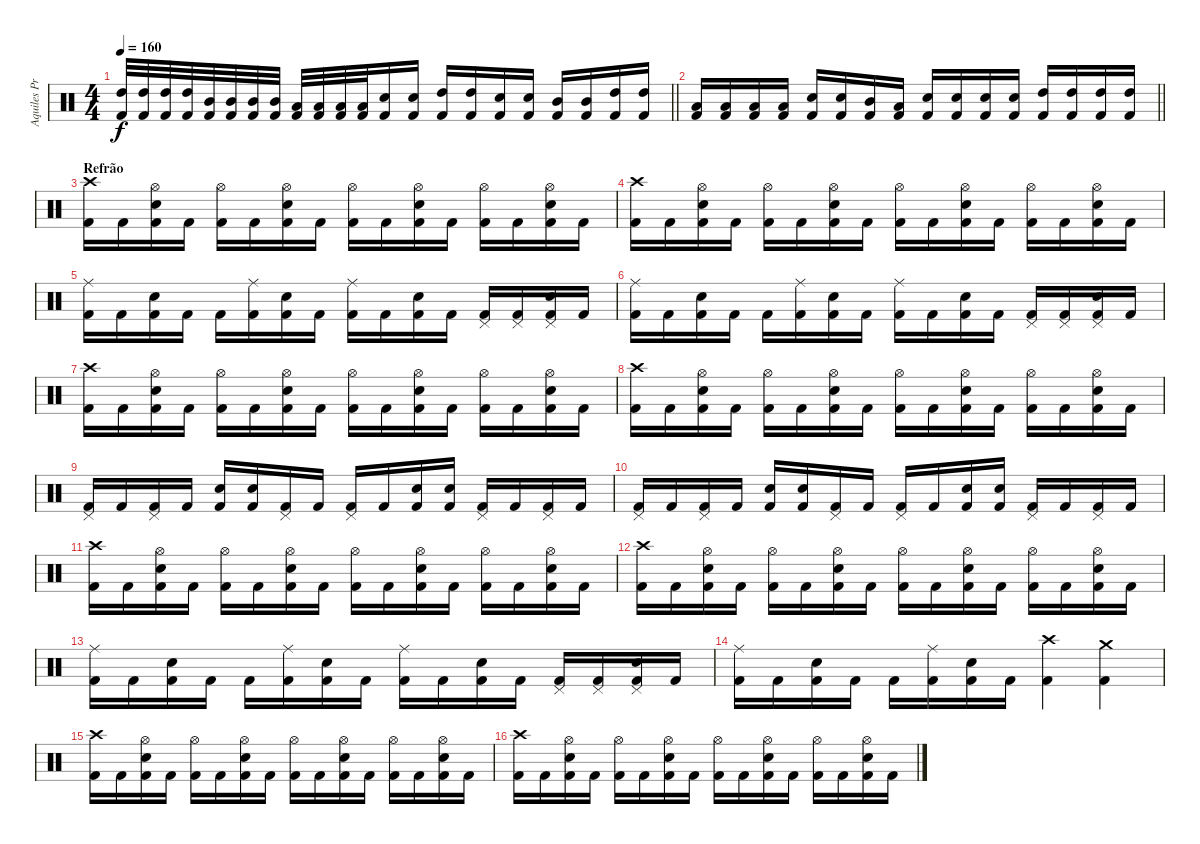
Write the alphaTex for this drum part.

\track ("Aquiles Priester" "Aquiles Pr") {instrument percussion}
\staff {score}
\articulation defaults
\ts (4 4)
\tempo 160
\clef neutral
\barLineRight lightlight
\ks c
("High Tom (hit)" "Kick (hit) 2").32{dy f} ("High Tom (hit)" "Kick (hit) 2").32 ("High Tom (hit)" "Kick (hit) 2").32 ("High Tom (hit)" "Kick (hit) 2").32 ("Mid Tom (hit)" "Kick (hit) 2").32 ("Mid Tom (hit)" "Kick (hit) 2").32 ("Mid Tom (hit)" "Kick (hit) 2").32 ("Mid Tom (hit)" "Kick (hit) 2").32 ("Low Tom (hit)" "Kick (hit) 2").32 ("Low Tom (hit)" "Kick (hit) 2").32 ("Low Tom (hit)" "Kick (hit) 2").32 ("Low Tom (hit)" "Kick (hit) 2").32 ("Electric Snare (hit)" "Kick (hit) 2").16 ("Electric Snare (hit)" "Kick (hit) 2").16 ("High Tom (hit)" "Kick (hit) 2").16 ("High Tom (hit)" "Kick (hit) 2").16 ("Electric Snare (hit)" "Kick (hit) 2").16 ("Electric Snare (hit)" "Kick (hit) 2").16 ("Mid Tom (hit)" "Kick (hit) 2").16 ("Mid Tom (hit)" "Kick (hit) 2").16 ("High Tom (hit)" "Kick (hit) 2").16 ("High Tom (hit)" "Kick (hit) 2").16 |
\barLineRight lightlight
("Low Tom (hit)" "Kick (hit) 2").16 ("Low Tom (hit)" "Kick (hit) 2").16 ("Low Tom (hit)" "Kick (hit) 2").16 ("Low Tom (hit)" "Kick (hit) 2").16 ("Electric Snare (hit)" "Kick (hit) 2").16 ("Electric Snare (hit)" "Kick (hit) 2").16 ("Mid Tom (hit)" "Kick (hit) 2").16 ("Low Tom (hit)" "Kick (hit) 2").16 ("Electric Snare (hit)" "Kick (hit) 2").16 ("Electric Snare (hit)" "Kick (hit) 2").16 ("Electric Snare (hit)" "Kick (hit) 2").16 ("Electric Snare (hit)" "Kick (hit) 2").16 ("High Tom (hit)" "Kick (hit) 2").16 ("High Tom (hit)" "Kick (hit) 2").16 ("High Tom (hit)" "Kick (hit) 2").16 ("High Tom (hit)" "Kick (hit) 2").16 |
\section ("" "Refrão")
("Crash high (hit)" "Kick (hit) 2").16 "Kick (hit) 2".16 ("Hi-Hat (open)" "Electric Snare (hit)" "Kick (hit) 2").16 "Kick (hit) 2".16 ("Hi-Hat (open)" "Kick (hit) 2").16 "Kick (hit) 2".16 ("Hi-Hat (open)" "Electric Snare (hit)" "Kick (hit) 2").16 "Kick (hit) 2".16 ("Hi-Hat (open)" "Kick (hit) 2").16 "Kick (hit) 2".16 ("Hi-Hat (open)" "Electric Snare (hit)" "Kick (hit) 2").16 "Kick (hit) 2".16 ("Hi-Hat (open)" "Kick (hit) 2").16 "Kick (hit) 2".16 ("Hi-Hat (open)" "Electric Snare (hit)" "Kick (hit) 2").16 "Kick (hit) 2".16 |
("Crash high (hit)" "Kick (hit) 2").16 "Kick (hit) 2".16 ("Hi-Hat (open)" "Electric Snare (hit)" "Kick (hit) 2").16 "Kick (hit) 2".16 ("Hi-Hat (open)" "Kick (hit) 2").16 "Kick (hit) 2".16 ("Hi-Hat (open)" "Electric Snare (hit)" "Kick (hit) 2").16 "Kick (hit) 2".16 ("Hi-Hat (open)" "Kick (hit) 2").16 "Kick (hit) 2".16 ("Hi-Hat (open)" "Electric Snare (hit)" "Kick (hit) 2").16 "Kick (hit) 2".16 ("Hi-Hat (open)" "Kick (hit) 2").16 "Kick (hit) 2".16 ("Hi-Hat (open)" "Electric Snare (hit)" "Kick (hit) 2").16 "Kick (hit) 2".16 |
("Ride (middle)" "Kick (hit) 2").16 "Kick (hit) 2".16 ("Electric Snare (hit)" "Kick (hit) 2").16 "Kick (hit) 2".16 "Kick (hit) 2".16 ("Ride (middle)" "Kick (hit) 2").16 ("Electric Snare (hit)" "Kick (hit) 2").16 "Kick (hit) 2".16 ("Ride (middle)" "Kick (hit) 2").16 "Kick (hit) 2".16 ("Electric Snare (hit)" "Kick (hit) 2").16 "Kick (hit) 2".16 ("Pedal Hi-Hat (hit)" "Kick (hit) 2").16 ("Pedal Hi-Hat (hit)" "Kick (hit) 2").16 ("Pedal Hi-Hat (hit)" "Electric Snare (hit)" "Kick (hit) 2").16 "Kick (hit) 2".16 |
("Ride (middle)" "Kick (hit) 2").16 "Kick (hit) 2".16 ("Electric Snare (hit)" "Kick (hit) 2").16 "Kick (hit) 2".16 "Kick (hit) 2".16 ("Ride (middle)" "Kick (hit) 2").16 ("Electric Snare (hit)" "Kick (hit) 2").16 "Kick (hit) 2".16 ("Ride (middle)" "Kick (hit) 2").16 "Kick (hit) 2".16 ("Electric Snare (hit)" "Kick (hit) 2").16 "Kick (hit) 2".16 ("Pedal Hi-Hat (hit)" "Kick (hit) 2").16 ("Pedal Hi-Hat (hit)" "Kick (hit) 2").16 ("Pedal Hi-Hat (hit)" "Electric Snare (hit)" "Kick (hit) 2").16 "Kick (hit) 2".16 |
("Crash high (hit)" "Kick (hit) 2").16 "Kick (hit) 2".16 ("Hi-Hat (open)" "Electric Snare (hit)" "Kick (hit) 2").16 "Kick (hit) 2".16 ("Hi-Hat (open)" "Kick (hit) 2").16 "Kick (hit) 2".16 ("Hi-Hat (open)" "Electric Snare (hit)" "Kick (hit) 2").16 "Kick (hit) 2".16 ("Hi-Hat (open)" "Kick (hit) 2").16 "Kick (hit) 2".16 ("Hi-Hat (open)" "Electric Snare (hit)" "Kick (hit) 2").16 "Kick (hit) 2".16 ("Hi-Hat (open)" "Kick (hit) 2").16 "Kick (hit) 2".16 ("Hi-Hat (open)" "Electric Snare (hit)" "Kick (hit) 2").16 "Kick (hit) 2".16 |
("Crash high (hit)" "Kick (hit) 2").16 "Kick (hit) 2".16 ("Hi-Hat (open)" "Electric Snare (hit)" "Kick (hit) 2").16 "Kick (hit) 2".16 ("Hi-Hat (open)" "Kick (hit) 2").16 "Kick (hit) 2".16 ("Hi-Hat (open)" "Electric Snare (hit)" "Kick (hit) 2").16 "Kick (hit) 2".16 ("Hi-Hat (open)" "Kick (hit) 2").16 "Kick (hit) 2".16 ("Hi-Hat (open)" "Electric Snare (hit)" "Kick (hit) 2").16 "Kick (hit) 2".16 ("Hi-Hat (open)" "Kick (hit) 2").16 "Kick (hit) 2".16 ("Hi-Hat (open)" "Electric Snare (hit)" "Kick (hit) 2").16 "Kick (hit) 2".16 |
("Pedal Hi-Hat (hit)" "Kick (hit) 2").16 "Kick (hit) 2".16 ("Pedal Hi-Hat (hit)" "Kick (hit) 2").16 "Kick (hit) 2".16 ("Electric Snare (hit)" "Kick (hit) 2").16 ("Electric Snare (hit)" "Kick (hit) 2").16 ("Pedal Hi-Hat (hit)" "Kick (hit) 2").16 "Kick (hit) 2".16 ("Pedal Hi-Hat (hit)" "Kick (hit) 2").16 "Kick (hit) 2".16 ("Electric Snare (hit)" "Kick (hit) 2").16 ("Electric Snare (hit)" "Kick (hit) 2").16 ("Pedal Hi-Hat (hit)" "Kick (hit) 2").16 "Kick (hit) 2".16 ("Pedal Hi-Hat (hit)" "Kick (hit) 2").16 "Kick (hit) 2".16 |
("Pedal Hi-Hat (hit)" "Kick (hit) 2").16 "Kick (hit) 2".16 ("Pedal Hi-Hat (hit)" "Kick (hit) 2").16 "Kick (hit) 2".16 ("Electric Snare (hit)" "Kick (hit) 2").16 ("Electric Snare (hit)" "Kick (hit) 2").16 ("Pedal Hi-Hat (hit)" "Kick (hit) 2").16 "Kick (hit) 2".16 ("Pedal Hi-Hat (hit)" "Kick (hit) 2").16 "Kick (hit) 2".16 ("Electric Snare (hit)" "Kick (hit) 2").16 ("Electric Snare (hit)" "Kick (hit) 2").16 ("Pedal Hi-Hat (hit)" "Kick (hit) 2").16 "Kick (hit) 2".16 ("Pedal Hi-Hat (hit)" "Kick (hit) 2").16 "Kick (hit) 2".16 |
("Crash high (hit)" "Kick (hit) 2").16 "Kick (hit) 2".16 ("Hi-Hat (open)" "Electric Snare (hit)" "Kick (hit) 2").16 "Kick (hit) 2".16 ("Hi-Hat (open)" "Kick (hit) 2").16 "Kick (hit) 2".16 ("Hi-Hat (open)" "Electric Snare (hit)" "Kick (hit) 2").16 "Kick (hit) 2".16 ("Hi-Hat (open)" "Kick (hit) 2").16 "Kick (hit) 2".16 ("Hi-Hat (open)" "Electric Snare (hit)" "Kick (hit) 2").16 "Kick (hit) 2".16 ("Hi-Hat (open)" "Kick (hit) 2").16 "Kick (hit) 2".16 ("Hi-Hat (open)" "Electric Snare (hit)" "Kick (hit) 2").16 "Kick (hit) 2".16 |
("Crash high (hit)" "Kick (hit) 2").16 "Kick (hit) 2".16 ("Hi-Hat (open)" "Electric Snare (hit)" "Kick (hit) 2").16 "Kick (hit) 2".16 ("Hi-Hat (open)" "Kick (hit) 2").16 "Kick (hit) 2".16 ("Hi-Hat (open)" "Electric Snare (hit)" "Kick (hit) 2").16 "Kick (hit) 2".16 ("Hi-Hat (open)" "Kick (hit) 2").16 "Kick (hit) 2".16 ("Hi-Hat (open)" "Electric Snare (hit)" "Kick (hit) 2").16 "Kick (hit) 2".16 ("Hi-Hat (open)" "Kick (hit) 2").16 "Kick (hit) 2".16 ("Hi-Hat (open)" "Electric Snare (hit)" "Kick (hit) 2").16 "Kick (hit) 2".16 |
("Ride (middle)" "Kick (hit) 2").16 "Kick (hit) 2".16 ("Electric Snare (hit)" "Kick (hit) 2").16 "Kick (hit) 2".16 "Kick (hit) 2".16 ("Ride (middle)" "Kick (hit) 2").16 ("Electric Snare (hit)" "Kick (hit) 2").16 "Kick (hit) 2".16 ("Ride (middle)" "Kick (hit) 2").16 "Kick (hit) 2".16 ("Electric Snare (hit)" "Kick (hit) 2").16 "Kick (hit) 2".16 ("Pedal Hi-Hat (hit)" "Kick (hit) 2").16 ("Pedal Hi-Hat (hit)" "Kick (hit) 2").16 ("Pedal Hi-Hat (hit)" "Electric Snare (hit)" "Kick (hit) 2").16 "Kick (hit) 2".16 |
("Ride (middle)" "Kick (hit) 2").16 "Kick (hit) 2".16 ("Electric Snare (hit)" "Kick (hit) 2").16 "Kick (hit) 2".16 "Kick (hit) 2".16 ("Ride (middle)" "Kick (hit) 2").16 ("Electric Snare (hit)" "Kick (hit) 2").16 "Kick (hit) 2".16 ("Crash high (hit)" "Kick (hit) 2").4 ("Crash medium (hit)" "Kick (hit) 2").4 |
("Crash high (hit)" "Kick (hit) 2").16 "Kick (hit) 2".16 ("Hi-Hat (open)" "Electric Snare (hit)" "Kick (hit) 2").16 "Kick (hit) 2".16 ("Hi-Hat (open)" "Kick (hit) 2").16 "Kick (hit) 2".16 ("Hi-Hat (open)" "Electric Snare (hit)" "Kick (hit) 2").16 "Kick (hit) 2".16 ("Hi-Hat (open)" "Kick (hit) 2").16 "Kick (hit) 2".16 ("Hi-Hat (open)" "Electric Snare (hit)" "Kick (hit) 2").16 "Kick (hit) 2".16 ("Hi-Hat (open)" "Kick (hit) 2").16 "Kick (hit) 2".16 ("Hi-Hat (open)" "Electric Snare (hit)" "Kick (hit) 2").16 "Kick (hit) 2".16 |
("Crash high (hit)" "Kick (hit) 2").16 "Kick (hit) 2".16 ("Hi-Hat (open)" "Electric Snare (hit)" "Kick (hit) 2").16 "Kick (hit) 2".16 ("Hi-Hat (open)" "Kick (hit) 2").16 "Kick (hit) 2".16 ("Hi-Hat (open)" "Electric Snare (hit)" "Kick (hit) 2").16 "Kick (hit) 2".16 ("Hi-Hat (open)" "Kick (hit) 2").16 "Kick (hit) 2".16 ("Hi-Hat (open)" "Electric Snare (hit)" "Kick (hit) 2").16 "Kick (hit) 2".16 ("Hi-Hat (open)" "Kick (hit) 2").16 "Kick (hit) 2".16 ("Hi-Hat (open)" "Electric Snare (hit)" "Kick (hit) 2").16 "Kick (hit) 2".16
